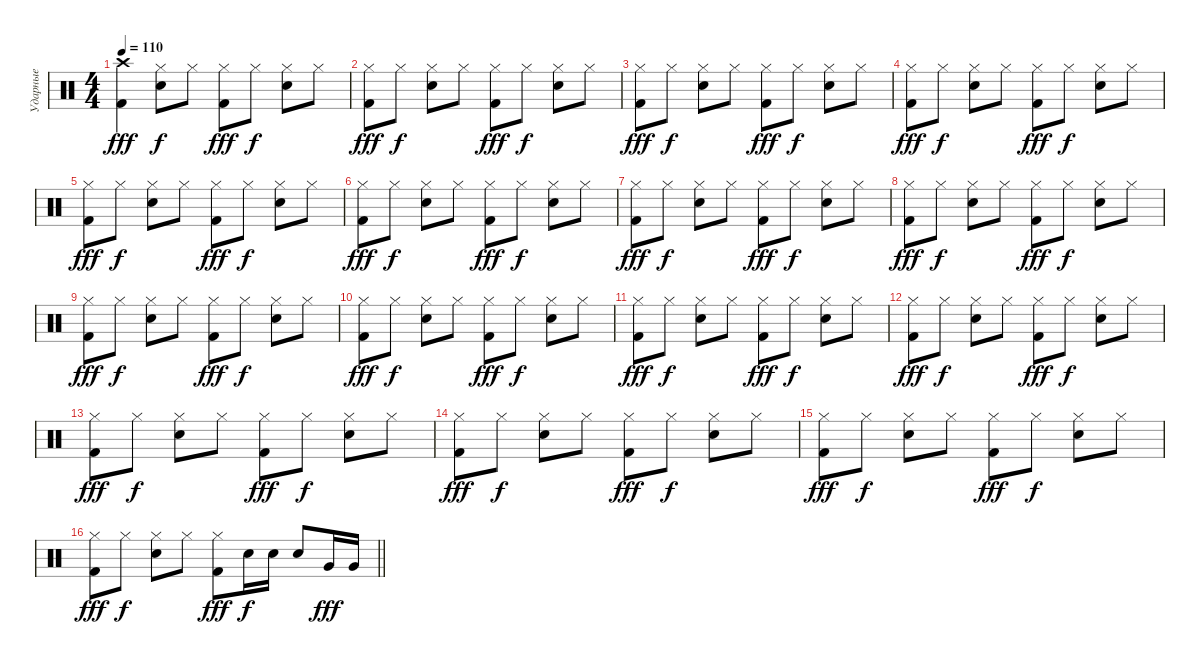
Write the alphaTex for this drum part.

\track ("Ударные" "Ударные") {instrument percussion}
\staff
\articulation defaults
\ts (4 4)
\tempo 110
\clef neutral
\ks c
("Kick (hit) 2" "Crash high (hit)").4{dy fff} ("Snare (hit) 2" "Hi-Hat (closed)").8{dy f} "Hi-Hat (closed)".8 ("Kick (hit) 2" "Hi-Hat (closed)").8{dy fff} "Hi-Hat (closed)".8{dy f} ("Snare (hit) 2" "Hi-Hat (closed)").8 "Hi-Hat (closed)".8 |
("Kick (hit) 2" "Hi-Hat (closed)").8{dy fff} "Hi-Hat (closed)".8{dy f} ("Snare (hit) 2" "Hi-Hat (closed)").8 "Hi-Hat (closed)".8 ("Kick (hit) 2" "Hi-Hat (closed)").8{dy fff} "Hi-Hat (closed)".8{dy f} ("Snare (hit) 2" "Hi-Hat (closed)").8 "Hi-Hat (closed)".8 |
("Kick (hit) 2" "Hi-Hat (closed)").8{dy fff} "Hi-Hat (closed)".8{dy f} ("Snare (hit) 2" "Hi-Hat (closed)").8 "Hi-Hat (closed)".8 ("Kick (hit) 2" "Hi-Hat (closed)").8{dy fff} "Hi-Hat (closed)".8{dy f} ("Snare (hit) 2" "Hi-Hat (closed)").8 "Hi-Hat (closed)".8 |
("Kick (hit) 2" "Hi-Hat (closed)").8{dy fff} "Hi-Hat (closed)".8{dy f} ("Snare (hit) 2" "Hi-Hat (closed)").8 "Hi-Hat (closed)".8 ("Kick (hit) 2" "Hi-Hat (closed)").8{dy fff} "Hi-Hat (closed)".8{dy f} ("Snare (hit) 2" "Hi-Hat (closed)").8 "Hi-Hat (closed)".8 |
("Kick (hit) 2" "Hi-Hat (closed)").8{dy fff} "Hi-Hat (closed)".8{dy f} ("Snare (hit) 2" "Hi-Hat (closed)").8 "Hi-Hat (closed)".8 ("Kick (hit) 2" "Hi-Hat (closed)").8{dy fff} "Hi-Hat (closed)".8{dy f} ("Snare (hit) 2" "Hi-Hat (closed)").8 "Hi-Hat (closed)".8 |
("Kick (hit) 2" "Hi-Hat (closed)").8{dy fff} "Hi-Hat (closed)".8{dy f} ("Snare (hit) 2" "Hi-Hat (closed)").8 "Hi-Hat (closed)".8 ("Kick (hit) 2" "Hi-Hat (closed)").8{dy fff} "Hi-Hat (closed)".8{dy f} ("Snare (hit) 2" "Hi-Hat (closed)").8 "Hi-Hat (closed)".8 |
("Kick (hit) 2" "Hi-Hat (closed)").8{dy fff} "Hi-Hat (closed)".8{dy f} ("Snare (hit) 2" "Hi-Hat (closed)").8 "Hi-Hat (closed)".8 ("Kick (hit) 2" "Hi-Hat (closed)").8{dy fff} "Hi-Hat (closed)".8{dy f} ("Snare (hit) 2" "Hi-Hat (closed)").8 "Hi-Hat (closed)".8 |
("Kick (hit) 2" "Hi-Hat (closed)").8{dy fff} "Hi-Hat (closed)".8{dy f} ("Snare (hit) 2" "Hi-Hat (closed)").8 "Hi-Hat (closed)".8 ("Kick (hit) 2" "Hi-Hat (closed)").8{dy fff} "Hi-Hat (closed)".8{dy f} ("Snare (hit) 2" "Hi-Hat (closed)").8 "Hi-Hat (closed)".8 |
("Kick (hit) 2" "Hi-Hat (closed)").8{dy fff} "Hi-Hat (closed)".8{dy f} ("Snare (hit) 2" "Hi-Hat (closed)").8 "Hi-Hat (closed)".8 ("Kick (hit) 2" "Hi-Hat (closed)").8{dy fff} "Hi-Hat (closed)".8{dy f} ("Snare (hit) 2" "Hi-Hat (closed)").8 "Hi-Hat (closed)".8 |
("Kick (hit) 2" "Hi-Hat (closed)").8{dy fff} "Hi-Hat (closed)".8{dy f} ("Snare (hit) 2" "Hi-Hat (closed)").8 "Hi-Hat (closed)".8 ("Kick (hit) 2" "Hi-Hat (closed)").8{dy fff} "Hi-Hat (closed)".8{dy f} ("Snare (hit) 2" "Hi-Hat (closed)").8 "Hi-Hat (closed)".8 |
("Kick (hit) 2" "Hi-Hat (closed)").8{dy fff} "Hi-Hat (closed)".8{dy f} ("Snare (hit) 2" "Hi-Hat (closed)").8 "Hi-Hat (closed)".8 ("Kick (hit) 2" "Hi-Hat (closed)").8{dy fff} "Hi-Hat (closed)".8{dy f} ("Snare (hit) 2" "Hi-Hat (closed)").8 "Hi-Hat (closed)".8 |
("Kick (hit) 2" "Hi-Hat (closed)").8{dy fff} "Hi-Hat (closed)".8{dy f} ("Snare (hit) 2" "Hi-Hat (closed)").8 "Hi-Hat (closed)".8 ("Kick (hit) 2" "Hi-Hat (closed)").8{dy fff} "Hi-Hat (closed)".8{dy f} ("Snare (hit) 2" "Hi-Hat (closed)").8 "Hi-Hat (closed)".8 |
("Kick (hit) 2" "Hi-Hat (closed)").8{dy fff} "Hi-Hat (closed)".8{dy f} ("Snare (hit) 2" "Hi-Hat (closed)").8 "Hi-Hat (closed)".8 ("Kick (hit) 2" "Hi-Hat (closed)").8{dy fff} "Hi-Hat (closed)".8{dy f} ("Snare (hit) 2" "Hi-Hat (closed)").8 "Hi-Hat (closed)".8 |
("Kick (hit) 2" "Hi-Hat (closed)").8{dy fff} "Hi-Hat (closed)".8{dy f} ("Snare (hit) 2" "Hi-Hat (closed)").8 "Hi-Hat (closed)".8 ("Kick (hit) 2" "Hi-Hat (closed)").8{dy fff} "Hi-Hat (closed)".8{dy f} ("Snare (hit) 2" "Hi-Hat (closed)").8 "Hi-Hat (closed)".8 |
("Kick (hit) 2" "Hi-Hat (closed)").8{dy fff} "Hi-Hat (closed)".8{dy f} ("Snare (hit) 2" "Hi-Hat (closed)").8 "Hi-Hat (closed)".8 ("Kick (hit) 2" "Hi-Hat (closed)").8{dy fff} "Hi-Hat (closed)".8{dy f} ("Snare (hit) 2" "Hi-Hat (closed)").8 "Hi-Hat (closed)".8 |
\barLineRight lightlight
("Kick (hit) 2" "Hi-Hat (closed)").8{dy fff} "Hi-Hat (closed)".8{dy f} ("Snare (hit) 2" "Hi-Hat (closed)").8 "Hi-Hat (closed)".8 ("Kick (hit) 2" "Hi-Hat (closed)").8{dy fff} "Snare (hit) 2".16{dy f} "Snare (hit) 2".16 "Snare (hit) 2".8 "Very Low Tom (hit)".16{dy fff} "Very Low Tom (hit)".16
